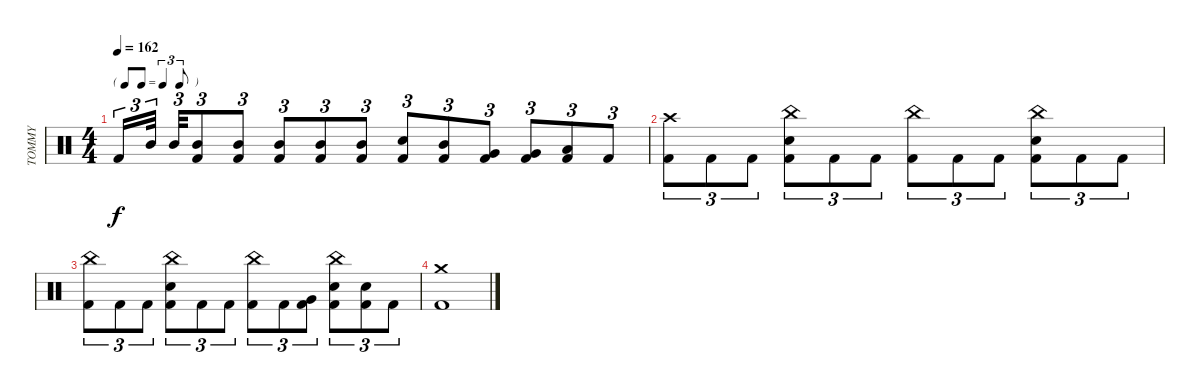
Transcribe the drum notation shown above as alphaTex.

\track ("TOMMY" "TOMMY") {instrument percussion}
\staff {score}
\articulation defaults
\ts (4 4)
\tf triplet8th
\tempo 162
\clef neutral
\ks c "Kick (hit) 2".16{tu (3 2) dy f} "Mid Tom (hit)".32{tu (3 2)} "Mid Tom (hit)".32{tu (3 2)}
("Kick (hit) 2" "Mid Tom (hit)").8{tu (3 2)} ("Kick (hit) 2" "Mid Tom (hit)").8{tu (3 2)} ("Kick (hit) 2" "Mid Tom (hit)").8{tu (3 2)} ("Kick (hit) 2" "Mid Tom (hit)").8{tu (3 2)} ("Kick (hit) 2" "Mid Tom (hit)").8{tu (3 2)} ("Snare (hit) 2" "Kick (hit) 2").8{tu (3 2)} ("Kick (hit) 2" "Mid Tom (hit)").8{tu (3 2)} ("Kick (hit) 2" "Very Low Tom (hit)").8{tu (3 2)} ("Kick (hit) 2" "Very Low Tom (hit)").8{tu (3 2)} ("Kick (hit) 2" "Low Floor Tom (hit)").8{tu (3 2)} "Kick (hit) 2".8{tu (3 2)} |
("Kick (hit) 2" "Crash high (hit)").8{tu (3 2)} "Kick (hit) 2".8{tu (3 2)} "Kick (hit) 2".8{tu (3 2)} ("Snare (hit) 2" "Kick (hit) 2" "China (hit)").8{tu (3 2)} "Kick (hit) 2".8{tu (3 2)} "Kick (hit) 2".8{tu (3 2)} ("Kick (hit) 2" "China (hit)").8{tu (3 2)} "Kick (hit) 2".8{tu (3 2)} "Kick (hit) 2".8{tu (3 2)} ("Snare (hit) 2" "Kick (hit) 2" "China (hit)").8{tu (3 2)} "Kick (hit) 2".8{tu (3 2)} "Kick (hit) 2".8{tu (3 2)} |
("Kick (hit) 2" "China (hit)").8{tu (3 2)} "Kick (hit) 2".8{tu (3 2)} "Kick (hit) 2".8{tu (3 2)} ("Snare (hit) 2" "Kick (hit) 2" "China (hit)").8{tu (3 2)} "Kick (hit) 2".8{tu (3 2)} "Kick (hit) 2".8{tu (3 2)} ("Kick (hit) 2" "China (hit)").8{tu (3 2)} "Kick (hit) 2".8{tu (3 2)} ("Kick (hit) 2" "Very Low Tom (hit)").8{tu (3 2)} ("Snare (hit) 2" "Kick (hit) 2" "China (hit)").8{tu (3 2)} ("Snare (hit) 2" "Kick (hit) 2").8{tu (3 2)} "Kick (hit) 2".8{tu (3 2)} |
("Kick (hit) 2" "Crash medium (hit)").1
